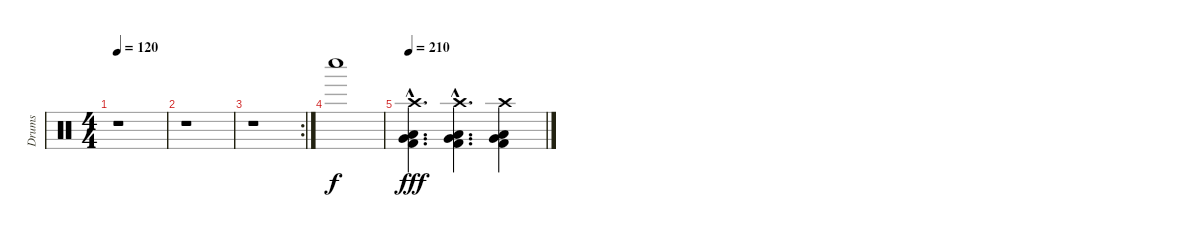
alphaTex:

\track ("Drums" "Drums") {instrument percussion}
\staff {score}
\articulation defaults
\ts (4 4)
\tempo 120
\clef neutral
\ks c
r.1{dy f} |
r.1 |
\rc 2
r.1 |
"Whistle low (hit)".1 |
\tempo 210
("Crash high (hit)"{hac} "Very Low Tom (hit)"{hac} "Low Floor Tom (hit)"{hac} "Kick (hit) 2"{hac}).4{d dy fff} ("Crash high (hit)"{hac} "Very Low Tom (hit)"{hac} "Low Floor Tom (hit)"{hac} "Kick (hit) 2"{hac}).4{d} ("Crash high (hit)" "Very Low Tom (hit)" "Low Floor Tom (hit)" "Kick (hit) 2").4
